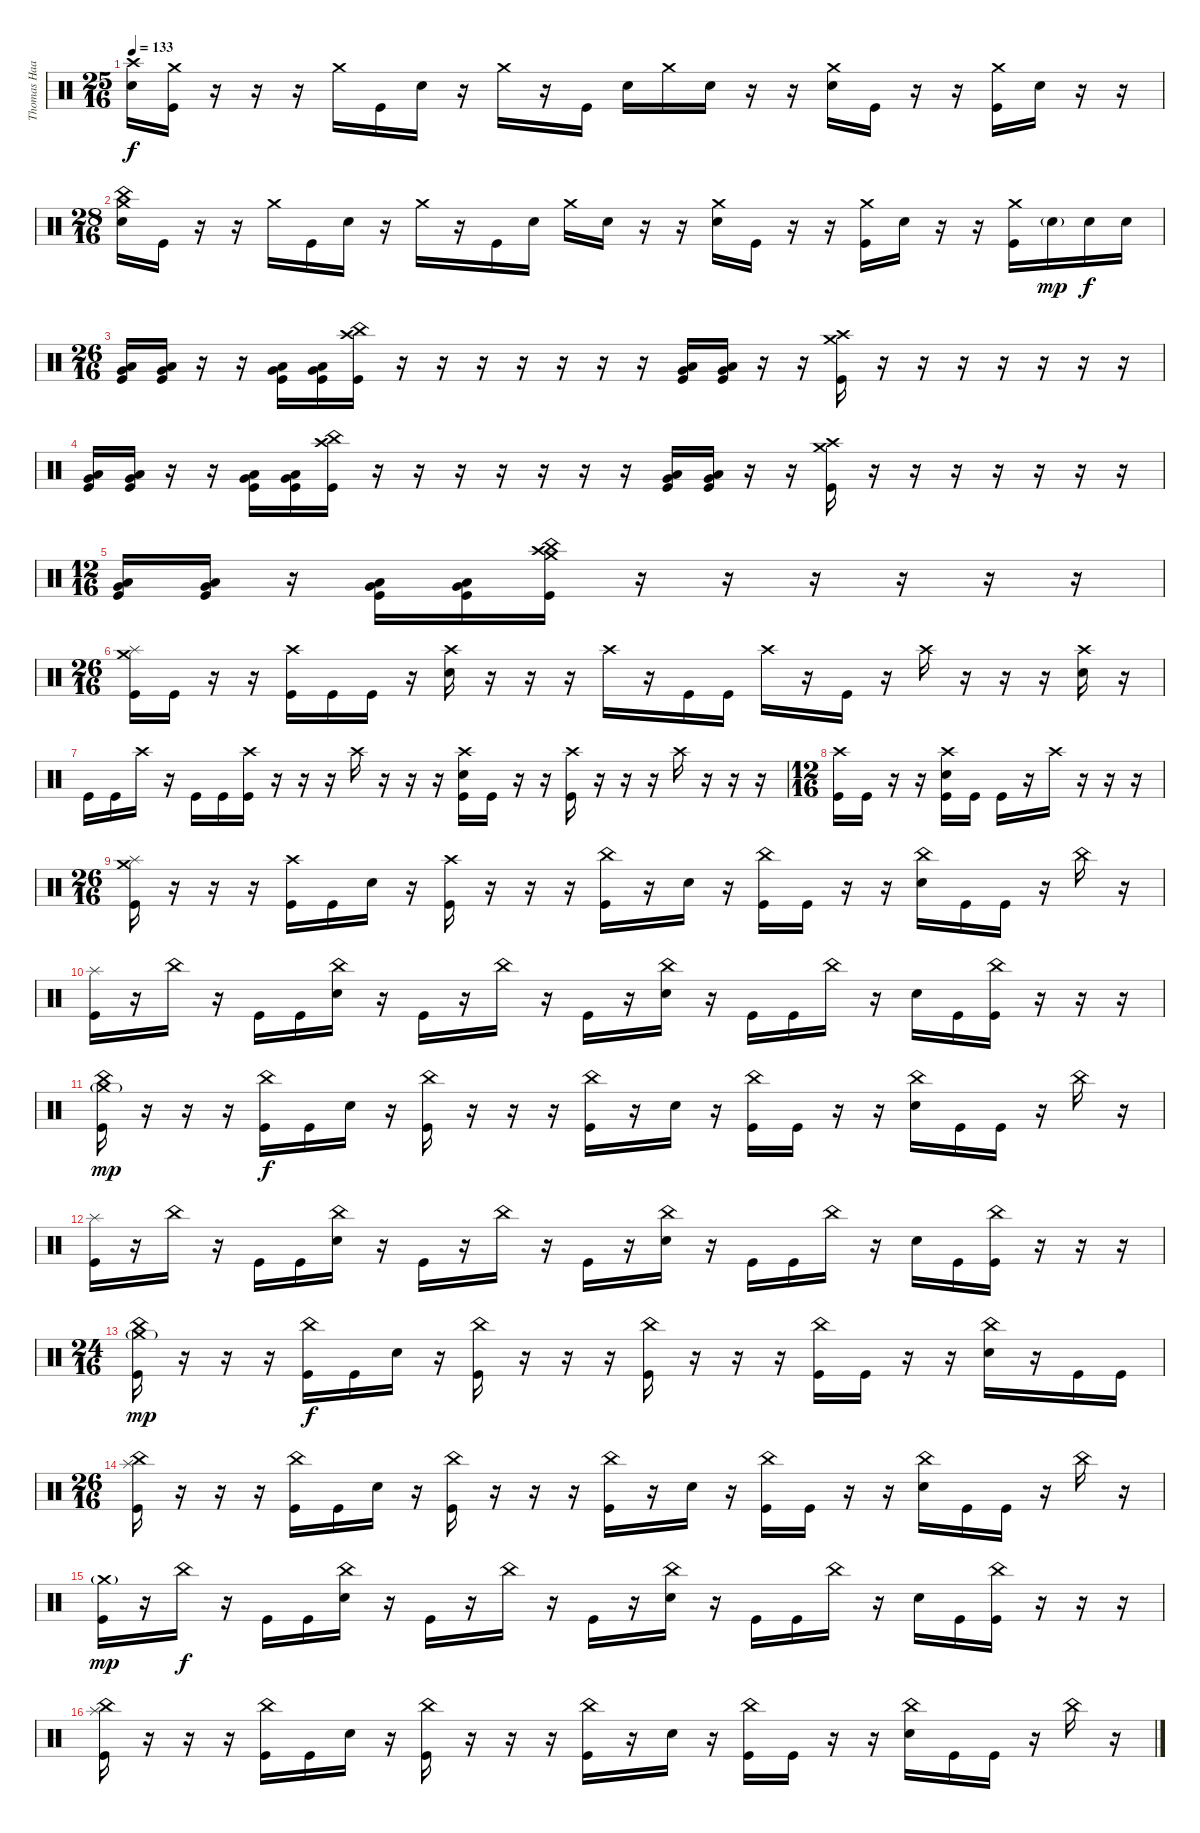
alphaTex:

\track ("Thomas Haake" "Thomas Haa") {instrument percussion}
\staff {score}
\articulation defaults
\ts (25 16)
\tempo 133
\clef neutral
\ks c
("Crash high (hit)" "Snare (hit) 2").16{dy f} ("Crash medium (hit)" "Kick (hit)").16 r.16 r.16 r.16 "Crash medium (hit)".16 "Kick (hit)".16 "Snare (hit) 2".16 r.16 "Crash medium (hit)".16 r.16 "Kick (hit)".16 "Snare (hit) 2".16 "Crash medium (hit)".16 "Snare (hit) 2".16 r.16 r.16 ("Crash medium (hit)" "Snare (hit) 2").16 "Kick (hit)".16 r.16 r.16 ("Crash medium (hit)" "Kick (hit)").16 "Snare (hit) 2".16 r.16 r.16 |
\ts (28 16)
("Crash medium (hit)" "China (hit)" "Snare (hit) 2").16 "Kick (hit)".16 r.16 r.16 "Crash medium (hit)".16 "Kick (hit)".16 "Snare (hit) 2".16 r.16 "Crash medium (hit)".16 r.16 "Kick (hit)".16 "Snare (hit) 2".16 "Crash medium (hit)".16 "Snare (hit) 2".16 r.16 r.16 ("Crash medium (hit)" "Snare (hit) 2").16 "Kick (hit)".16 r.16 r.16 ("Crash medium (hit)" "Kick (hit)").16 "Snare (hit) 2".16 r.16 r.16 ("Crash medium (hit)" "Kick (hit)").16 "Snare (hit) 2"{g}.16{dy mp} "Snare (hit) 2".16{dy f} "Snare (hit) 2".16 |
\ts (26 16)
("Low Floor Tom (hit)" "Very Low Tom (hit)" "Kick (hit)").16 ("Low Floor Tom (hit)" "Very Low Tom (hit)" "Kick (hit)").16 r.16 r.16 ("Low Floor Tom (hit)" "Very Low Tom (hit)" "Kick (hit)").16 ("Low Floor Tom (hit)" "Very Low Tom (hit)" "Kick (hit)").16 ("Crash high (hit)" "China (hit)" "Kick (hit)").16 r.16 r.16 r.16 r.16 r.16 r.16 r.16 ("Low Floor Tom (hit)" "Very Low Tom (hit)" "Kick (hit)").16 ("Low Floor Tom (hit)" "Very Low Tom (hit)" "Kick (hit)").16 r.16 r.16 ("Crash high (hit)" "Crash medium (hit)" "Kick (hit)").16 r.16 r.16 r.16 r.16 r.16 r.16 r.16 |
("Low Floor Tom (hit)" "Very Low Tom (hit)" "Kick (hit)").16 ("Low Floor Tom (hit)" "Very Low Tom (hit)" "Kick (hit)").16 r.16 r.16 ("Low Floor Tom (hit)" "Very Low Tom (hit)" "Kick (hit)").16 ("Low Floor Tom (hit)" "Very Low Tom (hit)" "Kick (hit)").16 ("Crash high (hit)" "China (hit)" "Kick (hit)").16 r.16 r.16 r.16 r.16 r.16 r.16 r.16 ("Low Floor Tom (hit)" "Very Low Tom (hit)" "Kick (hit)").16 ("Low Floor Tom (hit)" "Very Low Tom (hit)" "Kick (hit)").16 r.16 r.16 ("Crash high (hit)" "Crash medium (hit)" "Kick (hit)").16 r.16 r.16 r.16 r.16 r.16 r.16 r.16 |
\ts (12 16)
("Low Floor Tom (hit)" "Very Low Tom (hit)" "Kick (hit)").16 ("Low Floor Tom (hit)" "Very Low Tom (hit)" "Kick (hit)").16 r.16 ("Low Floor Tom (hit)" "Very Low Tom (hit)" "Kick (hit)").16 ("Low Floor Tom (hit)" "Very Low Tom (hit)" "Kick (hit)").16 ("Crash medium (hit)" "Crash high (hit)" "China (hit)" "Kick (hit)").16 r.16 r.16 r.16 r.16 r.16 r.16 |
\ts (26 16)
("Splash (hit)" "Crash medium (hit)" "Kick (hit)").16 "Kick (hit)".16 r.16 r.16 ("Crash high (hit)" "Kick (hit)").16 "Kick (hit)".16 "Kick (hit)".16 r.16 ("Crash high (hit)" "Snare (hit) 2").16 r.16 r.16 r.16 "Crash high (hit)".16 r.16 "Kick (hit)".16 "Kick (hit)".16 "Crash high (hit)".16 r.16 "Kick (hit)".16 r.16 "Crash high (hit)".16 r.16 r.16 r.16 ("Crash high (hit)" "Snare (hit) 2").16 r.16 |
"Kick (hit)".16 "Kick (hit)".16 "Crash high (hit)".16 r.16 "Kick (hit)".16 "Kick (hit)".16 ("Crash high (hit)" "Kick (hit)").16 r.16 r.16 r.16 "Crash high (hit)".16 r.16 r.16 r.16 ("Crash high (hit)" "Snare (hit) 2" "Kick (hit)").16 "Kick (hit)".16 r.16 r.16 ("Crash high (hit)" "Kick (hit)").16 r.16 r.16 r.16 "Crash high (hit)".16 r.16 r.16 r.16 |
\ts (12 16)
("Crash high (hit)" "Kick (hit)").16 "Kick (hit)".16 r.16 r.16 ("Crash high (hit)" "Snare (hit) 2" "Kick (hit)").16 "Kick (hit)".16 "Kick (hit)".16 r.16 "Crash high (hit)".16 r.16 r.16 r.16 |
\ts (26 16)
("Crash medium (hit)" "Splash (hit)" "Kick (hit)").16 r.16 r.16 r.16 ("Crash high (hit)" "Kick (hit)").16 "Kick (hit)".16 "Snare (hit) 2".16 r.16 ("Crash high (hit)" "Kick (hit)").16 r.16 r.16 r.16 ("China (hit)" "Kick (hit)").16 r.16 "Snare (hit) 2".16 r.16 ("China (hit)" "Kick (hit)").16 "Kick (hit)".16 r.16 r.16 ("China (hit)" "Snare (hit) 2").16 "Kick (hit)".16 "Kick (hit)".16 r.16 "China (hit)".16 r.16 |
("Splash (hit)" "Kick (hit)").16 r.16 "China (hit)".16 r.16 "Kick (hit)".16 "Kick (hit)".16 ("China (hit)" "Snare (hit) 2").16 r.16 "Kick (hit)".16 r.16 "China (hit)".16 r.16 "Kick (hit)".16 r.16 ("China (hit)" "Snare (hit) 2").16 r.16 "Kick (hit)".16 "Kick (hit)".16 "China (hit)".16 r.16 "Snare (hit) 2".16 "Kick (hit)".16 ("China (hit)" "Kick (hit)").16 r.16 r.16 r.16 |
("China (hit)" "Crash medium (hit)"{g} "Kick (hit)").16{dy mp} r.16 r.16 r.16 ("China (hit)" "Kick (hit)").16{dy f} "Kick (hit)".16 "Snare (hit) 2".16 r.16 ("China (hit)" "Kick (hit)").16 r.16 r.16 r.16 ("China (hit)" "Kick (hit)").16 r.16 "Snare (hit) 2".16 r.16 ("China (hit)" "Kick (hit)").16 "Kick (hit)".16 r.16 r.16 ("China (hit)" "Snare (hit) 2").16 "Kick (hit)".16 "Kick (hit)".16 r.16 "China (hit)".16 r.16 |
("Splash (hit)" "Kick (hit)").16 r.16 "China (hit)".16 r.16 "Kick (hit)".16 "Kick (hit)".16 ("China (hit)" "Snare (hit) 2").16 r.16 "Kick (hit)".16 r.16 "China (hit)".16 r.16 "Kick (hit)".16 r.16 ("China (hit)" "Snare (hit) 2").16 r.16 "Kick (hit)".16 "Kick (hit)".16 "China (hit)".16 r.16 "Snare (hit) 2".16 "Kick (hit)".16 ("China (hit)" "Kick (hit)").16 r.16 r.16 r.16 |
\ts (24 16)
("China (hit)" "Crash medium (hit)"{g} "Kick (hit)").16{dy mp} r.16 r.16 r.16 ("China (hit)" "Kick (hit)").16{dy f} "Kick (hit)".16 "Snare (hit) 2".16 r.16 ("China (hit)" "Kick (hit)").16 r.16 r.16 r.16 ("China (hit)" "Kick (hit)").16 r.16 r.16 r.16 ("China (hit)" "Kick (hit)").16 "Kick (hit)".16 r.16 r.16 ("China (hit)" "Snare (hit) 2").16 r.16 "Kick (hit)".16 "Kick (hit)".16 |
\ts (26 16)
("China (hit)" "Splash (hit)" "Kick (hit)").16 r.16 r.16 r.16 ("China (hit)" "Kick (hit)").16 "Kick (hit)".16 "Snare (hit) 2".16 r.16 ("China (hit)" "Kick (hit)").16 r.16 r.16 r.16 ("China (hit)" "Kick (hit)").16 r.16 "Snare (hit) 2".16 r.16 ("China (hit)" "Kick (hit)").16 "Kick (hit)".16 r.16 r.16 ("China (hit)" "Snare (hit) 2").16 "Kick (hit)".16 "Kick (hit)".16 r.16 "China (hit)".16 r.16 |
("Crash medium (hit)"{g} "Kick (hit)").16{dy mp} r.16 "China (hit)".16{dy f} r.16 "Kick (hit)".16 "Kick (hit)".16 ("China (hit)" "Snare (hit) 2").16 r.16 "Kick (hit)".16 r.16 "China (hit)".16 r.16 "Kick (hit)".16 r.16 ("China (hit)" "Snare (hit) 2").16 r.16 "Kick (hit)".16 "Kick (hit)".16 "China (hit)".16 r.16 "Snare (hit) 2".16 "Kick (hit)".16 ("China (hit)" "Kick (hit)").16 r.16 r.16 r.16 |
("China (hit)" "Splash (hit)" "Kick (hit)").16 r.16 r.16 r.16 ("China (hit)" "Kick (hit)").16 "Kick (hit)".16 "Snare (hit) 2".16 r.16 ("China (hit)" "Kick (hit)").16 r.16 r.16 r.16 ("China (hit)" "Kick (hit)").16 r.16 "Snare (hit) 2".16 r.16 ("China (hit)" "Kick (hit)").16 "Kick (hit)".16 r.16 r.16 ("China (hit)" "Snare (hit) 2").16 "Kick (hit)".16 "Kick (hit)".16 r.16 "China (hit)".16 r.16
